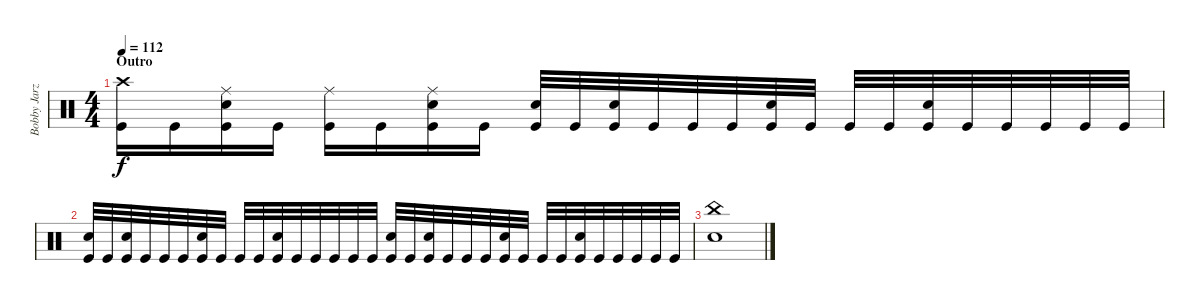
\track ("Bobby Jarzombek" "Bobby Jarz") {instrument percussion}
\staff {score}
\articulation defaults
\ts (4 4)
\section ("" "Outro")
\tempo 112
\clef neutral
\ks c
("Crash high (hit)" "Kick (hit)").16{dy f} "Kick (hit)".16 ("Ride (middle)" "Electric Snare (hit)" "Kick (hit)").16 "Kick (hit)".16 ("Ride (middle)" "Kick (hit)").16 "Kick (hit)".16 ("Ride (middle)" "Electric Snare (hit)" "Kick (hit)").16 "Kick (hit)".16 ("Electric Snare (hit)" "Kick (hit)").32 "Kick (hit)".32 ("Electric Snare (hit)" "Kick (hit)").32 "Kick (hit)".32 "Kick (hit)".32 "Kick (hit)".32 ("Electric Snare (hit)" "Kick (hit)").32 "Kick (hit)".32 "Kick (hit)".32 "Kick (hit)".32 ("Electric Snare (hit)" "Kick (hit)").32 "Kick (hit)".32 "Kick (hit)".32 "Kick (hit)".32 "Kick (hit)".32 "Kick (hit)".32 |
("Electric Snare (hit)" "Kick (hit)").32 "Kick (hit)".32 ("Electric Snare (hit)" "Kick (hit)").32 "Kick (hit)".32 "Kick (hit)".32 "Kick (hit)".32 ("Electric Snare (hit)" "Kick (hit)").32 "Kick (hit)".32 "Kick (hit)".32 "Kick (hit)".32 ("Electric Snare (hit)" "Kick (hit)").32 "Kick (hit)".32 "Kick (hit)".32 "Kick (hit)".32 "Kick (hit)".32 "Kick (hit)".32 ("Electric Snare (hit)" "Kick (hit)").32 "Kick (hit)".32 ("Electric Snare (hit)" "Kick (hit)").32 "Kick (hit)".32 "Kick (hit)".32 "Kick (hit)".32 ("Electric Snare (hit)" "Kick (hit)").32 "Kick (hit)".32 "Kick (hit)".32 "Kick (hit)".32 ("Electric Snare (hit)" "Kick (hit)").32 "Kick (hit)".32 "Kick (hit)".32 "Kick (hit)".32 "Kick (hit)".32 "Kick (hit)".32 |
("China (hit)" "Electric Snare (hit)").1
